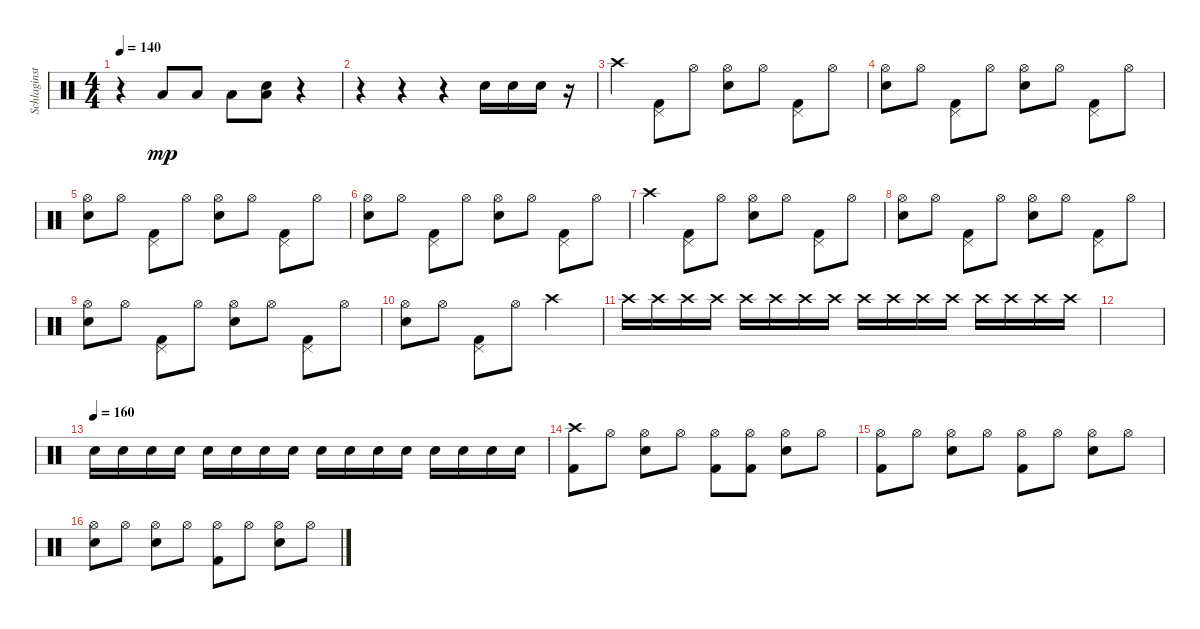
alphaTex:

\track ("Schlaginstrumente - Auswahl" "Schlaginst") {instrument percussion}
\staff {score}
\articulation defaults
\ts (4 4)
\tempo 140
\clef neutral
\ks c
r.4{dy mp} "Low Tom (hit)".8 "Low Tom (hit)".8 "Low Tom (hit)".8 ("Low Tom (hit)" "Snare (hit) 2").8 r.4 |
r.4 r.4 r.4 "Snare (hit) 2".16 "Snare (hit) 2".16 "Snare (hit) 2".16 r.16 |
"Crash high (hit)".4 ("Pedal Hi-Hat (hit)" "Kick (hit) 2").8 "Hi-Hat (open)".8 ("Hi-Hat (open)" "Snare (hit) 2").8 "Hi-Hat (open)".8 ("Pedal Hi-Hat (hit)" "Kick (hit) 2").8 "Hi-Hat (open)".8 |
("Hi-Hat (open)" "Snare (hit) 2").8 "Hi-Hat (open)".8 ("Pedal Hi-Hat (hit)" "Kick (hit) 2").8 "Hi-Hat (open)".8 ("Hi-Hat (open)" "Snare (hit) 2").8 "Hi-Hat (open)".8 ("Pedal Hi-Hat (hit)" "Kick (hit) 2").8 "Hi-Hat (open)".8 |
("Hi-Hat (open)" "Snare (hit) 2").8 "Hi-Hat (open)".8 ("Pedal Hi-Hat (hit)" "Kick (hit) 2").8 "Hi-Hat (open)".8 ("Hi-Hat (open)" "Snare (hit) 2").8 "Hi-Hat (open)".8 ("Pedal Hi-Hat (hit)" "Kick (hit) 2").8 "Hi-Hat (open)".8 |
("Hi-Hat (open)" "Snare (hit) 2").8 "Hi-Hat (open)".8 ("Pedal Hi-Hat (hit)" "Kick (hit) 2").8 "Hi-Hat (open)".8 ("Hi-Hat (open)" "Snare (hit) 2").8 "Hi-Hat (open)".8 ("Pedal Hi-Hat (hit)" "Kick (hit) 2").8 "Hi-Hat (open)".8 |
"Crash high (hit)".4 ("Pedal Hi-Hat (hit)" "Kick (hit) 2").8 "Hi-Hat (open)".8 ("Hi-Hat (open)" "Snare (hit) 2").8 "Hi-Hat (open)".8 ("Pedal Hi-Hat (hit)" "Kick (hit) 2").8 "Hi-Hat (open)".8 |
("Hi-Hat (open)" "Snare (hit) 2").8 "Hi-Hat (open)".8 ("Pedal Hi-Hat (hit)" "Kick (hit) 2").8 "Hi-Hat (open)".8 ("Hi-Hat (open)" "Snare (hit) 2").8 "Hi-Hat (open)".8 ("Pedal Hi-Hat (hit)" "Kick (hit) 2").8 "Hi-Hat (open)".8 |
("Hi-Hat (open)" "Snare (hit) 2").8 "Hi-Hat (open)".8 ("Pedal Hi-Hat (hit)" "Kick (hit) 2").8 "Hi-Hat (open)".8 ("Hi-Hat (open)" "Snare (hit) 2").8 "Hi-Hat (open)".8 ("Pedal Hi-Hat (hit)" "Kick (hit) 2").8 "Hi-Hat (open)".8 |
("Hi-Hat (open)" "Snare (hit) 2").8 "Hi-Hat (open)".8 ("Pedal Hi-Hat (hit)" "Kick (hit) 2").8 "Hi-Hat (open)".8 "Crash high (hit)".2 |
"Crash high (hit)".16 "Crash high (hit)".16 "Crash high (hit)".16 "Crash high (hit)".16 "Crash high (hit)".16 "Crash high (hit)".16 "Crash high (hit)".16 "Crash high (hit)".16 "Crash high (hit)".16 "Crash high (hit)".16 "Crash high (hit)".16 "Crash high (hit)".16 "Crash high (hit)".16 "Crash high (hit)".16 "Crash high (hit)".16 "Crash high (hit)".16 |
|
\tempo (160)
"Snare (hit) 2".16 "Snare (hit) 2".16 "Snare (hit) 2".16 "Snare (hit) 2".16 "Snare (hit) 2".16 "Snare (hit) 2".16 "Snare (hit) 2".16 "Snare (hit) 2".16 "Snare (hit) 2".16 "Snare (hit) 2".16 "Snare (hit) 2".16 "Snare (hit) 2".16 "Snare (hit) 2".16 "Snare (hit) 2".16 "Snare (hit) 2".16 "Snare (hit) 2".16 |
("Crash high (hit)" "Kick (hit) 2").8 "Hi-Hat (open)".8 ("Hi-Hat (open)" "Snare (hit) 2").8 "Hi-Hat (open)".8 ("Hi-Hat (open)" "Kick (hit) 2").8 ("Hi-Hat (open)" "Kick (hit) 2").8 ("Hi-Hat (open)" "Snare (hit) 2").8 "Hi-Hat (open)".8 |
("Hi-Hat (open)" "Kick (hit) 2").8 "Hi-Hat (open)".8 ("Hi-Hat (open)" "Snare (hit) 2").8 "Hi-Hat (open)".8 ("Hi-Hat (open)" "Kick (hit) 2").8 "Hi-Hat (open)".8 ("Hi-Hat (open)" "Snare (hit) 2").8 "Hi-Hat (open)".8 |
("Hi-Hat (open)" "Snare (hit) 2").8 "Hi-Hat (open)".8 ("Hi-Hat (open)" "Snare (hit) 2").8 "Hi-Hat (open)".8 ("Hi-Hat (open)" "Kick (hit) 2").8 "Hi-Hat (open)".8 ("Hi-Hat (open)" "Snare (hit) 2").8 "Hi-Hat (open)".8
